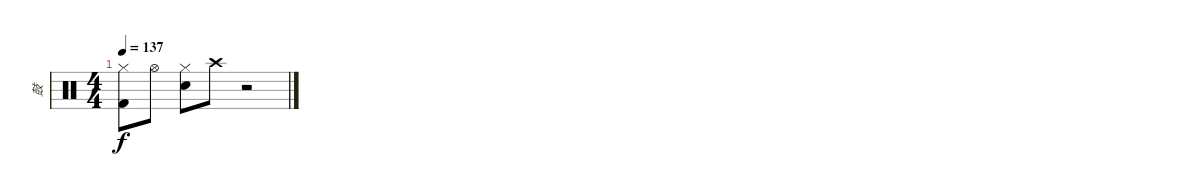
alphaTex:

\track ("鼓" "鼓") {instrument percussion}
\staff {score}
\articulation defaults
\ts (4 4)
\tempo 137
\clef neutral
\ks c
("Hi-Hat (closed)" "Kick (hit) 2").8{dy f} "Hi-Hat (open)".8 ("Hi-Hat (closed)" "Snare (hit) 2").8 "Crash high (hit)".8 r.2
